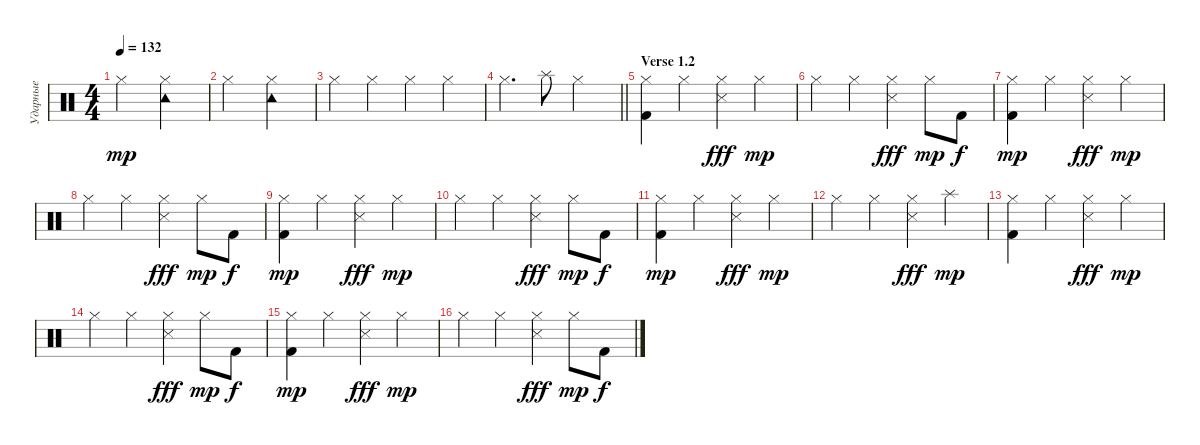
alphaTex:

\track ("Ударные" "Ударные") {instrument percussion}
\staff {score}
\articulation defaults
\ts (4 4)
\tempo 132
\clef neutral
\ks c "Hi-Hat (closed)".2{dy mp}
("Hi-Hat (closed)" "Tambourine (hit)").2 |
"Hi-Hat (closed)".2 ("Hi-Hat (closed)" "Tambourine (hit)").2 |
"Hi-Hat (closed)".4 "Hi-Hat (closed)".4 "Hi-Hat (closed)".4 "Hi-Hat (closed)".4 |
\barLineRight lightlight "Hi-Hat (closed)".4{d} "Splash (hit)".8 "Hi-Hat (closed)".2
|
\section ("" "Verse 1.2")
("Hi-Hat (closed)" "Kick (hit) 2").4 "Hi-Hat (closed)".4 ("Hi-Hat (closed)" "Snare (side stick) 3").4{dy fff} "Hi-Hat (closed)".4{dy mp} |
"Hi-Hat (closed)".4 "Hi-Hat (closed)".4 ("Hi-Hat (closed)" "Snare (side stick) 3").4{dy fff} "Hi-Hat (closed)".8{dy mp} "Kick (hit) 2".8{dy f} |
("Hi-Hat (closed)" "Kick (hit) 2").4{dy mp} "Hi-Hat (closed)".4 ("Hi-Hat (closed)" "Snare (side stick) 3").4{dy fff} "Hi-Hat (closed)".4{dy mp} |
"Hi-Hat (closed)".4 "Hi-Hat (closed)".4 ("Hi-Hat (closed)" "Snare (side stick) 3").4{dy fff} "Hi-Hat (closed)".8{dy mp} "Kick (hit) 2".8{dy f} |
("Hi-Hat (closed)" "Kick (hit) 2").4{dy mp} "Hi-Hat (closed)".4 ("Hi-Hat (closed)" "Snare (side stick) 3").4{dy fff} "Hi-Hat (closed)".4{dy mp} |
"Hi-Hat (closed)".4 "Hi-Hat (closed)".4 ("Hi-Hat (closed)" "Snare (side stick) 3").4{dy fff} "Hi-Hat (closed)".8{dy mp} "Kick (hit) 2".8{dy f} |
("Hi-Hat (closed)" "Kick (hit) 2").4{dy mp} "Hi-Hat (closed)".4 ("Hi-Hat (closed)" "Snare (side stick) 3").4{dy fff} "Hi-Hat (closed)".4{dy mp} |
"Hi-Hat (closed)".4 "Hi-Hat (closed)".4 ("Hi-Hat (closed)" "Snare (side stick) 3").4{dy fff} "Splash (hit)".4{dy mp} |
("Hi-Hat (closed)" "Kick (hit) 2").4 "Hi-Hat (closed)".4 ("Hi-Hat (closed)" "Snare (side stick) 3").4{dy fff} "Hi-Hat (closed)".4{dy mp} |
"Hi-Hat (closed)".4 "Hi-Hat (closed)".4 ("Hi-Hat (closed)" "Snare (side stick) 3").4{dy fff} "Hi-Hat (closed)".8{dy mp} "Kick (hit) 2".8{dy f} |
("Hi-Hat (closed)" "Kick (hit) 2").4{dy mp} "Hi-Hat (closed)".4 ("Hi-Hat (closed)" "Snare (side stick) 3").4{dy fff} "Hi-Hat (closed)".4{dy mp} |
"Hi-Hat (closed)".4 "Hi-Hat (closed)".4 ("Hi-Hat (closed)" "Snare (side stick) 3").4{dy fff} "Hi-Hat (closed)".8{dy mp} "Kick (hit) 2".8{dy f}
